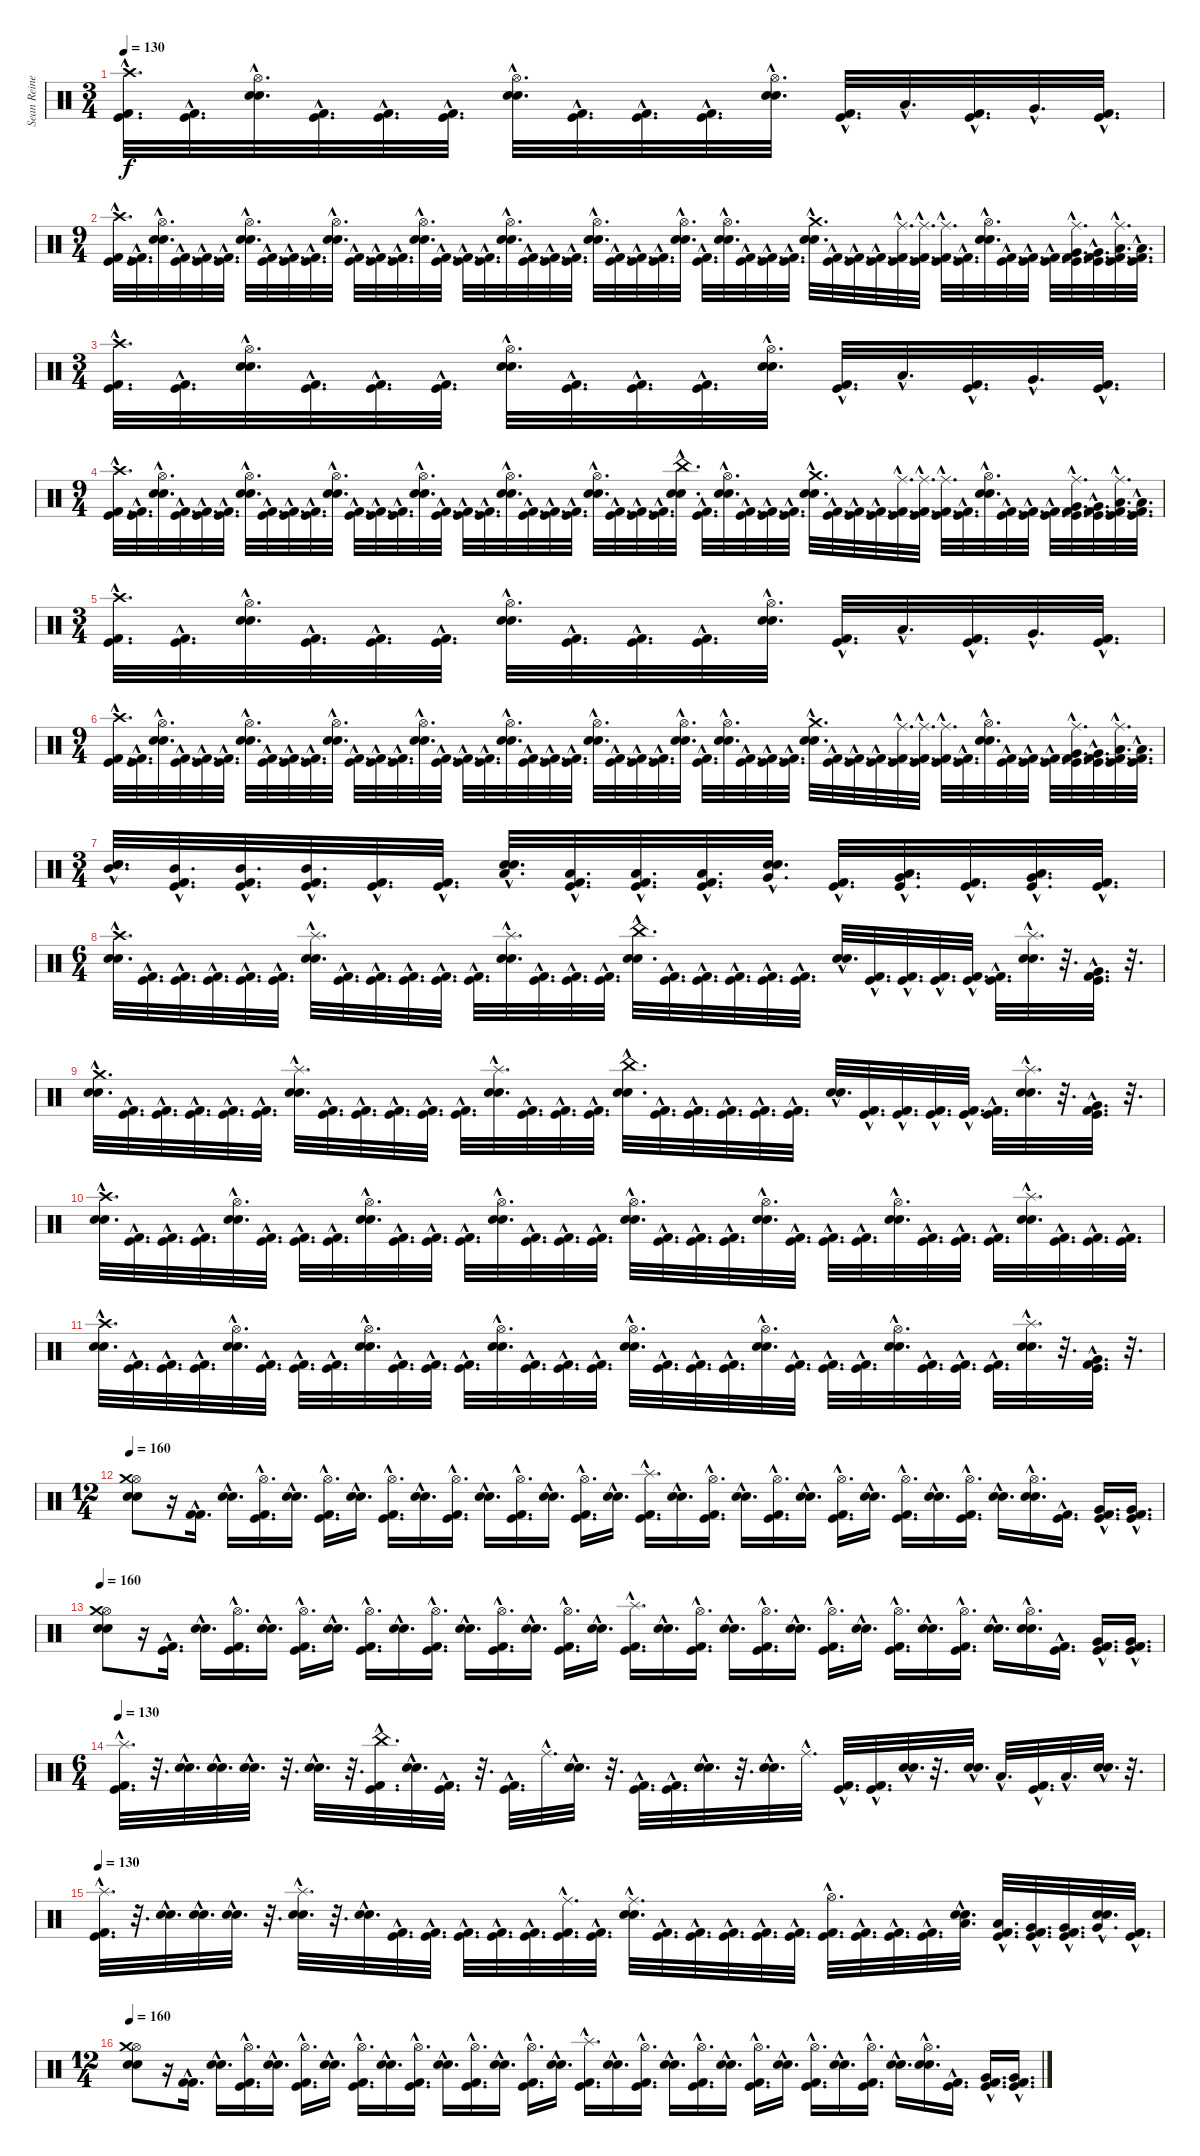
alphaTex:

\track ("Sean Reinert" "Sean Reine") {instrument percussion}
\staff {score}
\articulation defaults
\ts (3 4)
\tempo 130
\clef neutral
\ks c
("Crash high (hit)"{hac} "Kick (hit) 2"{hac} "Kick (hit)"{hac}).32{d dy f} ("Kick (hit) 2"{hac} "Kick (hit)"{hac}).32{d} ("Hi-Hat (open)"{hac} "Electric Snare (hit)"{hac} "Snare (hit) 2"{hac}).32{d} ("Kick (hit) 2"{hac} "Kick (hit)"{hac}).32{d} ("Kick (hit) 2"{hac} "Kick (hit)"{hac}).32{d} ("Kick (hit) 2"{hac} "Kick (hit)"{hac}).32{d} ("Hi-Hat (open)"{hac} "Electric Snare (hit)"{hac} "Snare (hit) 2"{hac}).32{d} ("Kick (hit) 2"{hac} "Kick (hit)"{hac}).32{d} ("Kick (hit) 2"{hac} "Kick (hit)"{hac}).32{d} ("Kick (hit) 2"{hac} "Kick (hit)"{hac}).32{d} ("Hi-Hat (open)"{hac} "Electric Snare (hit)"{hac} "Snare (hit) 2"{hac}).32{d} ("Kick (hit) 2"{hac} "Kick (hit)"{hac}).32{d} "Low Tom (hit)"{hac}.32{d} ("Kick (hit) 2"{hac} "Kick (hit)"{hac}).32{d} "Very Low Tom (hit)"{hac}.32{d} ("Kick (hit) 2"{hac} "Kick (hit)"{hac}).32{d} |
\ts (9 4)
("Crash high (hit)"{hac} "Kick (hit) 2"{hac} "Kick (hit)"{hac}).32{d} ("Kick (hit) 2"{hac} "Kick (hit)"{hac}).32{d} ("Hi-Hat (open)"{hac} "Electric Snare (hit)"{hac} "Snare (hit) 2"{hac}).32{d} ("Kick (hit) 2"{hac} "Kick (hit)"{hac}).32{d} ("Kick (hit) 2"{hac} "Kick (hit)"{hac}).32{d} ("Kick (hit) 2"{hac} "Kick (hit)"{hac}).32{d} ("Hi-Hat (open)"{hac} "Electric Snare (hit)"{hac} "Snare (hit) 2"{hac}).32{d} ("Kick (hit) 2"{hac} "Kick (hit)"{hac}).32{d} ("Kick (hit) 2"{hac} "Kick (hit)"{hac}).32{d} ("Kick (hit) 2"{hac} "Kick (hit)"{hac}).32{d} ("Hi-Hat (open)"{hac} "Electric Snare (hit)"{hac} "Snare (hit) 2"{hac}).32{d} ("Kick (hit) 2"{hac} "Kick (hit)"{hac}).32{d} ("Kick (hit) 2"{hac} "Kick (hit)"{hac}).32{d} ("Kick (hit) 2"{hac} "Kick (hit)"{hac}).32{d} ("Hi-Hat (open)"{hac} "Electric Snare (hit)"{hac} "Snare (hit) 2"{hac}).32{d} ("Kick (hit) 2"{hac} "Kick (hit)"{hac}).32{d} ("Kick (hit) 2"{hac} "Kick (hit)"{hac}).32{d} ("Kick (hit) 2"{hac} "Kick (hit)"{hac}).32{d} ("Hi-Hat (open)"{hac} "Electric Snare (hit)"{hac} "Snare (hit) 2"{hac}).32{d} ("Kick (hit) 2"{hac} "Kick (hit)"{hac}).32{d} ("Kick (hit) 2"{hac} "Kick (hit)"{hac}).32{d} ("Kick (hit) 2"{hac} "Kick (hit)"{hac}).32{d} ("Hi-Hat (open)"{hac} "Electric Snare (hit)"{hac} "Snare (hit) 2"{hac}).32{d} ("Kick (hit) 2"{hac} "Kick (hit)"{hac}).32{d} ("Kick (hit) 2"{hac} "Kick (hit)"{hac}).32{d} ("Kick (hit) 2"{hac} "Kick (hit)"{hac}).32{d} ("Hi-Hat (open)"{hac} "Electric Snare (hit)"{hac} "Snare (hit) 2"{hac}).32{d} ("Kick (hit) 2"{hac} "Kick (hit)"{hac}).32{d} ("Hi-Hat (open)"{hac} "Electric Snare (hit)"{hac} "Snare (hit) 2"{hac}).32{d} ("Kick (hit) 2"{hac} "Kick (hit)"{hac}).32{d} ("Kick (hit) 2"{hac} "Kick (hit)"{hac}).32{d} ("Kick (hit) 2"{hac} "Kick (hit)"{hac}).32{d} ("Crash medium (hit)"{hac} "Electric Snare (hit)"{hac} "Snare (hit) 2"{hac}).32{d} ("Kick (hit) 2"{hac} "Kick (hit)"{hac}).32{d} ("Kick (hit) 2"{hac} "Kick (hit)"{hac}).32{d} ("Kick (hit) 2"{hac} "Kick (hit)"{hac}).32{d} ("Ride (middle)"{hac} "Kick (hit) 2"{hac} "Kick (hit)"{hac}).32{d} ("Ride (middle)"{hac} "Kick (hit) 2"{hac} "Kick (hit)"{hac}).32{d} ("Ride (middle)"{hac} "Kick (hit) 2"{hac} "Kick (hit)"{hac}).32{d} ("Kick (hit) 2"{hac} "Kick (hit)"{hac}).32{d} ("Hi-Hat (open)"{hac} "Electric Snare (hit)"{hac} "Snare (hit) 2"{hac}).32{d} ("Kick (hit) 2"{hac} "Kick (hit)"{hac}).32{d} ("Kick (hit) 2"{hac} "Kick (hit)"{hac}).32{d} ("Kick (hit) 2"{hac} "Kick (hit)"{hac}).32{d} ("Ride (middle)"{hac} "Very Low Tom (hit)"{hac} "Kick (hit) 2"{hac} "Kick (hit)"{hac}).32{d} ("Very Low Tom (hit)"{hac} "Kick (hit) 2"{hac} "Kick (hit)"{hac}).32{d} ("Ride (middle)"{hac} "Low Floor Tom (hit)"{hac} "Kick (hit) 2"{hac} "Kick (hit)"{hac}).32{d} ("Low Floor Tom (hit)"{hac} "Kick (hit) 2"{hac} "Kick (hit)"{hac}).32{d} |
\ts (3 4)
("Crash high (hit)"{hac} "Kick (hit) 2"{hac} "Kick (hit)"{hac}).32{d} ("Kick (hit) 2"{hac} "Kick (hit)"{hac}).32{d} ("Hi-Hat (open)"{hac} "Electric Snare (hit)"{hac} "Snare (hit) 2"{hac}).32{d} ("Kick (hit) 2"{hac} "Kick (hit)"{hac}).32{d} ("Kick (hit) 2"{hac} "Kick (hit)"{hac}).32{d} ("Kick (hit) 2"{hac} "Kick (hit)"{hac}).32{d} ("Hi-Hat (open)"{hac} "Electric Snare (hit)"{hac} "Snare (hit) 2"{hac}).32{d} ("Kick (hit) 2"{hac} "Kick (hit)"{hac}).32{d} ("Kick (hit) 2"{hac} "Kick (hit)"{hac}).32{d} ("Kick (hit) 2"{hac} "Kick (hit)"{hac}).32{d} ("Hi-Hat (open)"{hac} "Electric Snare (hit)"{hac} "Snare (hit) 2"{hac}).32{d} ("Kick (hit) 2"{hac} "Kick (hit)"{hac}).32{d} "Low Tom (hit)"{hac}.32{d} ("Kick (hit) 2"{hac} "Kick (hit)"{hac}).32{d} "Very Low Tom (hit)"{hac}.32{d} ("Kick (hit) 2"{hac} "Kick (hit)"{hac}).32{d} |
\ts (9 4)
("Crash high (hit)"{hac} "Kick (hit) 2"{hac} "Kick (hit)"{hac}).32{d} ("Kick (hit) 2"{hac} "Kick (hit)"{hac}).32{d} ("Hi-Hat (open)"{hac} "Electric Snare (hit)"{hac} "Snare (hit) 2"{hac}).32{d} ("Kick (hit) 2"{hac} "Kick (hit)"{hac}).32{d} ("Kick (hit) 2"{hac} "Kick (hit)"{hac}).32{d} ("Kick (hit) 2"{hac} "Kick (hit)"{hac}).32{d} ("Hi-Hat (open)"{hac} "Electric Snare (hit)"{hac} "Snare (hit) 2"{hac}).32{d} ("Kick (hit) 2"{hac} "Kick (hit)"{hac}).32{d} ("Kick (hit) 2"{hac} "Kick (hit)"{hac}).32{d} ("Kick (hit) 2"{hac} "Kick (hit)"{hac}).32{d} ("Hi-Hat (open)"{hac} "Electric Snare (hit)"{hac} "Snare (hit) 2"{hac}).32{d} ("Kick (hit) 2"{hac} "Kick (hit)"{hac}).32{d} ("Kick (hit) 2"{hac} "Kick (hit)"{hac}).32{d} ("Kick (hit) 2"{hac} "Kick (hit)"{hac}).32{d} ("Hi-Hat (open)"{hac} "Electric Snare (hit)"{hac} "Snare (hit) 2"{hac}).32{d} ("Kick (hit) 2"{hac} "Kick (hit)"{hac}).32{d} ("Kick (hit) 2"{hac} "Kick (hit)"{hac}).32{d} ("Kick (hit) 2"{hac} "Kick (hit)"{hac}).32{d} ("Hi-Hat (open)"{hac} "Electric Snare (hit)"{hac} "Snare (hit) 2"{hac}).32{d} ("Kick (hit) 2"{hac} "Kick (hit)"{hac}).32{d} ("Kick (hit) 2"{hac} "Kick (hit)"{hac}).32{d} ("Kick (hit) 2"{hac} "Kick (hit)"{hac}).32{d} ("Hi-Hat (open)"{hac} "Electric Snare (hit)"{hac} "Snare (hit) 2"{hac}).32{d} ("Kick (hit) 2"{hac} "Kick (hit)"{hac}).32{d} ("Kick (hit) 2"{hac} "Kick (hit)"{hac}).32{d} ("Kick (hit) 2"{hac} "Kick (hit)"{hac}).32{d} ("China (hit)"{hac} "Electric Snare (hit)"{hac} "Snare (hit) 2"{hac}).32{d} ("Kick (hit) 2"{hac} "Kick (hit)"{hac}).32{d} ("Hi-Hat (open)"{hac} "Electric Snare (hit)"{hac} "Snare (hit) 2"{hac}).32{d} ("Kick (hit) 2"{hac} "Kick (hit)"{hac}).32{d} ("Kick (hit) 2"{hac} "Kick (hit)"{hac}).32{d} ("Kick (hit) 2"{hac} "Kick (hit)"{hac}).32{d} ("Crash medium (hit)"{hac} "Electric Snare (hit)"{hac} "Snare (hit) 2"{hac}).32{d} ("Kick (hit) 2"{hac} "Kick (hit)"{hac}).32{d} ("Kick (hit) 2"{hac} "Kick (hit)"{hac}).32{d} ("Kick (hit) 2"{hac} "Kick (hit)"{hac}).32{d} ("Ride (middle)"{hac} "Kick (hit) 2"{hac} "Kick (hit)"{hac}).32{d} ("Ride (middle)"{hac} "Kick (hit) 2"{hac} "Kick (hit)"{hac}).32{d} ("Ride (middle)"{hac} "Kick (hit) 2"{hac} "Kick (hit)"{hac}).32{d} ("Kick (hit) 2"{hac} "Kick (hit)"{hac}).32{d} ("Hi-Hat (open)"{hac} "Electric Snare (hit)"{hac} "Snare (hit) 2"{hac}).32{d} ("Kick (hit) 2"{hac} "Kick (hit)"{hac}).32{d} ("Kick (hit) 2"{hac} "Kick (hit)"{hac}).32{d} ("Kick (hit) 2"{hac} "Kick (hit)"{hac}).32{d} ("Ride (middle)"{hac} "Very Low Tom (hit)"{hac} "Kick (hit) 2"{hac} "Kick (hit)"{hac}).32{d} ("Very Low Tom (hit)"{hac} "Kick (hit) 2"{hac} "Kick (hit)"{hac}).32{d} ("Ride (middle)"{hac} "Low Floor Tom (hit)"{hac} "Kick (hit) 2"{hac} "Kick (hit)"{hac}).32{d} ("Low Floor Tom (hit)"{hac} "Kick (hit) 2"{hac} "Kick (hit)"{hac}).32{d} |
\ts (3 4)
("Crash high (hit)"{hac} "Kick (hit) 2"{hac} "Kick (hit)"{hac}).32{d} ("Kick (hit) 2"{hac} "Kick (hit)"{hac}).32{d} ("Hi-Hat (open)"{hac} "Electric Snare (hit)"{hac} "Snare (hit) 2"{hac}).32{d} ("Kick (hit) 2"{hac} "Kick (hit)"{hac}).32{d} ("Kick (hit) 2"{hac} "Kick (hit)"{hac}).32{d} ("Kick (hit) 2"{hac} "Kick (hit)"{hac}).32{d} ("Hi-Hat (open)"{hac} "Electric Snare (hit)"{hac} "Snare (hit) 2"{hac}).32{d} ("Kick (hit) 2"{hac} "Kick (hit)"{hac}).32{d} ("Kick (hit) 2"{hac} "Kick (hit)"{hac}).32{d} ("Kick (hit) 2"{hac} "Kick (hit)"{hac}).32{d} ("Hi-Hat (open)"{hac} "Electric Snare (hit)"{hac} "Snare (hit) 2"{hac}).32{d} ("Kick (hit) 2"{hac} "Kick (hit)"{hac}).32{d} "Low Tom (hit)"{hac}.32{d} ("Kick (hit) 2"{hac} "Kick (hit)"{hac}).32{d} "Very Low Tom (hit)"{hac}.32{d} ("Kick (hit) 2"{hac} "Kick (hit)"{hac}).32{d} |
\ts (9 4)
("Crash high (hit)"{hac} "Kick (hit) 2"{hac} "Kick (hit)"{hac}).32{d} ("Kick (hit) 2"{hac} "Kick (hit)"{hac}).32{d} ("Hi-Hat (open)"{hac} "Electric Snare (hit)"{hac} "Snare (hit) 2"{hac}).32{d} ("Kick (hit) 2"{hac} "Kick (hit)"{hac}).32{d} ("Kick (hit) 2"{hac} "Kick (hit)"{hac}).32{d} ("Kick (hit) 2"{hac} "Kick (hit)"{hac}).32{d} ("Hi-Hat (open)"{hac} "Electric Snare (hit)"{hac} "Snare (hit) 2"{hac}).32{d} ("Kick (hit) 2"{hac} "Kick (hit)"{hac}).32{d} ("Kick (hit) 2"{hac} "Kick (hit)"{hac}).32{d} ("Kick (hit) 2"{hac} "Kick (hit)"{hac}).32{d} ("Hi-Hat (open)"{hac} "Electric Snare (hit)"{hac} "Snare (hit) 2"{hac}).32{d} ("Kick (hit) 2"{hac} "Kick (hit)"{hac}).32{d} ("Kick (hit) 2"{hac} "Kick (hit)"{hac}).32{d} ("Kick (hit) 2"{hac} "Kick (hit)"{hac}).32{d} ("Hi-Hat (open)"{hac} "Electric Snare (hit)"{hac} "Snare (hit) 2"{hac}).32{d} ("Kick (hit) 2"{hac} "Kick (hit)"{hac}).32{d} ("Kick (hit) 2"{hac} "Kick (hit)"{hac}).32{d} ("Kick (hit) 2"{hac} "Kick (hit)"{hac}).32{d} ("Hi-Hat (open)"{hac} "Electric Snare (hit)"{hac} "Snare (hit) 2"{hac}).32{d} ("Kick (hit) 2"{hac} "Kick (hit)"{hac}).32{d} ("Kick (hit) 2"{hac} "Kick (hit)"{hac}).32{d} ("Kick (hit) 2"{hac} "Kick (hit)"{hac}).32{d} ("Hi-Hat (open)"{hac} "Electric Snare (hit)"{hac} "Snare (hit) 2"{hac}).32{d} ("Kick (hit) 2"{hac} "Kick (hit)"{hac}).32{d} ("Kick (hit) 2"{hac} "Kick (hit)"{hac}).32{d} ("Kick (hit) 2"{hac} "Kick (hit)"{hac}).32{d} ("Hi-Hat (open)"{hac} "Electric Snare (hit)"{hac} "Snare (hit) 2"{hac}).32{d} ("Kick (hit) 2"{hac} "Kick (hit)"{hac}).32{d} ("Hi-Hat (open)"{hac} "Electric Snare (hit)"{hac} "Snare (hit) 2"{hac}).32{d} ("Kick (hit) 2"{hac} "Kick (hit)"{hac}).32{d} ("Kick (hit) 2"{hac} "Kick (hit)"{hac}).32{d} ("Kick (hit) 2"{hac} "Kick (hit)"{hac}).32{d} ("Crash medium (hit)"{hac} "Electric Snare (hit)"{hac} "Snare (hit) 2"{hac}).32{d} ("Kick (hit) 2"{hac} "Kick (hit)"{hac}).32{d} ("Kick (hit) 2"{hac} "Kick (hit)"{hac}).32{d} ("Kick (hit) 2"{hac} "Kick (hit)"{hac}).32{d} ("Ride (middle)"{hac} "Kick (hit) 2"{hac} "Kick (hit)"{hac}).32{d} ("Ride (middle)"{hac} "Kick (hit) 2"{hac} "Kick (hit)"{hac}).32{d} ("Ride (middle)"{hac} "Kick (hit) 2"{hac} "Kick (hit)"{hac}).32{d} ("Kick (hit) 2"{hac} "Kick (hit)"{hac}).32{d} ("Hi-Hat (open)"{hac} "Electric Snare (hit)"{hac} "Snare (hit) 2"{hac}).32{d} ("Kick (hit) 2"{hac} "Kick (hit)"{hac}).32{d} ("Kick (hit) 2"{hac} "Kick (hit)"{hac}).32{d} ("Kick (hit) 2"{hac} "Kick (hit)"{hac}).32{d} ("Ride (middle)"{hac} "Very Low Tom (hit)"{hac} "Kick (hit) 2"{hac} "Kick (hit)"{hac}).32{d} ("Very Low Tom (hit)"{hac} "Kick (hit) 2"{hac} "Kick (hit)"{hac}).32{d} ("Ride (middle)"{hac} "Low Floor Tom (hit)"{hac} "Kick (hit) 2"{hac} "Kick (hit)"{hac}).32{d} ("Low Floor Tom (hit)"{hac} "Kick (hit) 2"{hac} "Kick (hit)"{hac}).32{d} |
\ts (3 4)
("Mid Tom (hit)"{hac} "Electric Snare (hit)"{hac} "Snare (hit) 2"{hac}).32{d} ("Mid Tom (hit)"{hac} "Kick (hit) 2"{hac} "Kick (hit)"{hac}).32{d} ("Mid Tom (hit)"{hac} "Kick (hit)"{hac} "Kick (hit) 2"{hac}).32{d} ("Mid Tom (hit)"{hac} "Kick (hit) 2"{hac} "Kick (hit)"{hac}).32{d} ("Kick (hit) 2"{hac} "Kick (hit)"{hac}).32{d} ("Kick (hit) 2"{hac} "Kick (hit)"{hac}).32{d} ("Low Tom (hit)"{hac} "Electric Snare (hit)"{hac} "Snare (hit) 2"{hac}).32{d} ("Low Tom (hit)"{hac} "Kick (hit) 2"{hac} "Kick (hit)"{hac}).32{d} ("Low Tom (hit)"{hac} "Kick (hit) 2"{hac} "Kick (hit)"{hac}).32{d} ("Low Tom (hit)"{hac} "Kick (hit) 2"{hac} "Kick (hit)"{hac}).32{d} ("Very Low Tom (hit)"{hac} "Electric Snare (hit)"{hac} "Snare (hit) 2"{hac}).32{d} ("Kick (hit) 2"{hac} "Kick (hit)"{hac}).32{d} ("Low Floor Tom (hit)"{hac} "Very Low Tom (hit)"{hac} "Kick (hit)"{hac}).32{d} ("Kick (hit) 2"{hac} "Kick (hit)"{hac}).32{d} ("Low Floor Tom (hit)"{hac} "Very Low Tom (hit)"{hac} "Kick (hit)"{hac}).32{d} ("Kick (hit) 2"{hac} "Kick (hit)"{hac}).32{d} |
\ts (6 4)
("Crash high (hit)"{hac} "Snare (hit) 2"{hac} "Electric Snare (hit)"{hac}).32{d} ("Kick (hit) 2"{hac} "Kick (hit)"{hac}).32{d} ("Kick (hit) 2"{hac} "Kick (hit)"{hac}).32{d} ("Kick (hit) 2"{hac} "Kick (hit)"{hac}).32{d} ("Kick (hit) 2"{hac} "Kick (hit)"{hac}).32{d} ("Kick (hit) 2"{hac} "Kick (hit)"{hac}).32{d} ("Splash (hit)"{hac} "Snare (hit) 2"{hac} "Electric Snare (hit)"{hac}).32{d} ("Kick (hit) 2"{hac} "Kick (hit)"{hac}).32{d} ("Kick (hit) 2"{hac} "Kick (hit)"{hac}).32{d} ("Kick (hit) 2"{hac} "Kick (hit)"{hac}).32{d} ("Kick (hit) 2"{hac} "Kick (hit)"{hac}).32{d} ("Kick (hit) 2"{hac} "Kick (hit)"{hac}).32{d} ("Splash (hit)"{hac} "Snare (hit) 2"{hac} "Electric Snare (hit)"{hac}).32{d} ("Kick (hit) 2"{hac} "Kick (hit)"{hac}).32{d} ("Kick (hit) 2"{hac} "Kick (hit)"{hac}).32{d} ("Kick (hit) 2"{hac} "Kick (hit)"{hac}).32{d} ("China (hit)"{hac} "Snare (hit) 2"{hac} "Electric Snare (hit)"{hac}).32{d} ("Kick (hit) 2"{hac} "Kick (hit)"{hac}).32{d} ("Kick (hit) 2"{hac} "Kick (hit)"{hac}).32{d} ("Kick (hit) 2"{hac} "Kick (hit)"{hac}).32{d} ("Kick (hit) 2"{hac} "Kick (hit)"{hac}).32{d} ("Kick (hit) 2"{hac} "Kick (hit)"{hac}).32{d} ("Snare (hit) 2"{hac} "Electric Snare (hit)"{hac}).32{d} ("Kick (hit) 2"{hac} "Kick (hit)"{hac}).32{d} ("Kick (hit) 2"{hac} "Kick (hit)"{hac}).32{d} ("Kick (hit) 2"{hac} "Kick (hit)"{hac}).32{d} ("Kick (hit) 2"{hac} "Kick (hit)"{hac}).32{d} ("Kick (hit) 2"{hac} "Kick (hit)"{hac}).32{d} ("Splash (hit)"{hac} "Snare (hit) 2"{hac} "Electric Snare (hit)"{hac}).32{d} r.32{d} ("Very Low Tom (hit)"{hac} "Kick (hit) 2"{hac} "Kick (hit)"{hac}).32{d} r.32{d} |
("Crash medium (hit)"{hac} "Snare (hit) 2"{hac} "Electric Snare (hit)"{hac}).32{d} ("Kick (hit) 2"{hac} "Kick (hit)"{hac}).32{d} ("Kick (hit) 2"{hac} "Kick (hit)"{hac}).32{d} ("Kick (hit) 2"{hac} "Kick (hit)"{hac}).32{d} ("Kick (hit) 2"{hac} "Kick (hit)"{hac}).32{d} ("Kick (hit) 2"{hac} "Kick (hit)"{hac}).32{d} ("Splash (hit)"{hac} "Snare (hit) 2"{hac} "Electric Snare (hit)"{hac}).32{d} ("Kick (hit) 2"{hac} "Kick (hit)"{hac}).32{d} ("Kick (hit) 2"{hac} "Kick (hit)"{hac}).32{d} ("Kick (hit) 2"{hac} "Kick (hit)"{hac}).32{d} ("Kick (hit) 2"{hac} "Kick (hit)"{hac}).32{d} ("Kick (hit) 2"{hac} "Kick (hit)"{hac}).32{d} ("Splash (hit)"{hac} "Snare (hit) 2"{hac} "Electric Snare (hit)"{hac}).32{d} ("Kick (hit) 2"{hac} "Kick (hit)"{hac}).32{d} ("Kick (hit) 2"{hac} "Kick (hit)"{hac}).32{d} ("Kick (hit) 2"{hac} "Kick (hit)"{hac}).32{d} ("China (hit)"{hac} "Snare (hit) 2"{hac} "Electric Snare (hit)"{hac}).32{d} ("Kick (hit) 2"{hac} "Kick (hit)"{hac}).32{d} ("Kick (hit) 2"{hac} "Kick (hit)"{hac}).32{d} ("Kick (hit) 2"{hac} "Kick (hit)"{hac}).32{d} ("Kick (hit) 2"{hac} "Kick (hit)"{hac}).32{d} ("Kick (hit) 2"{hac} "Kick (hit)"{hac}).32{d} ("Snare (hit) 2"{hac} "Electric Snare (hit)"{hac}).32{d} ("Kick (hit) 2"{hac} "Kick (hit)"{hac}).32{d} ("Kick (hit) 2"{hac} "Kick (hit)"{hac}).32{d} ("Kick (hit) 2"{hac} "Kick (hit)"{hac}).32{d} ("Kick (hit) 2"{hac} "Kick (hit)"{hac}).32{d} ("Kick (hit) 2"{hac} "Kick (hit)"{hac}).32{d} ("Splash (hit)"{hac} "Snare (hit) 2"{hac} "Electric Snare (hit)"{hac}).32{d} r.32{d} ("Very Low Tom (hit)"{hac} "Kick (hit) 2"{hac} "Kick (hit)"{hac}).32{d} r.32{d} |
("Crash high (hit)"{hac} "Snare (hit) 2"{hac} "Electric Snare (hit)"{hac}).32{d} ("Kick (hit) 2"{hac} "Kick (hit)"{hac}).32{d} ("Kick (hit) 2"{hac} "Kick (hit)"{hac}).32{d} ("Kick (hit) 2"{hac} "Kick (hit)"{hac}).32{d} ("Hi-Hat (open)"{hac} "Snare (hit) 2"{hac} "Electric Snare (hit)"{hac}).32{d} ("Kick (hit) 2"{hac} "Kick (hit)"{hac}).32{d} ("Kick (hit) 2"{hac} "Kick (hit)"{hac}).32{d} ("Kick (hit) 2"{hac} "Kick (hit)"{hac}).32{d} ("Hi-Hat (open)"{hac} "Snare (hit) 2"{hac} "Electric Snare (hit)"{hac}).32{d} ("Kick (hit) 2"{hac} "Kick (hit)"{hac}).32{d} ("Kick (hit) 2"{hac} "Kick (hit)"{hac}).32{d} ("Kick (hit) 2"{hac} "Kick (hit)"{hac}).32{d} ("Hi-Hat (open)"{hac} "Snare (hit) 2"{hac} "Electric Snare (hit)"{hac}).32{d} ("Kick (hit) 2"{hac} "Kick (hit)"{hac}).32{d} ("Kick (hit) 2"{hac} "Kick (hit)"{hac}).32{d} ("Kick (hit) 2"{hac} "Kick (hit)"{hac}).32{d} ("Hi-Hat (open)"{hac} "Snare (hit) 2"{hac} "Electric Snare (hit)"{hac}).32{d} ("Kick (hit) 2"{hac} "Kick (hit)"{hac}).32{d} ("Kick (hit) 2"{hac} "Kick (hit)"{hac}).32{d} ("Kick (hit) 2"{hac} "Kick (hit)"{hac}).32{d} ("Hi-Hat (open)"{hac} "Snare (hit) 2"{hac} "Electric Snare (hit)"{hac}).32{d} ("Kick (hit) 2"{hac} "Kick (hit)"{hac}).32{d} ("Kick (hit) 2"{hac} "Kick (hit)"{hac}).32{d} ("Kick (hit) 2"{hac} "Kick (hit)"{hac}).32{d} ("Hi-Hat (open)"{hac} "Snare (hit) 2"{hac} "Electric Snare (hit)"{hac}).32{d} ("Kick (hit) 2"{hac} "Kick (hit)"{hac}).32{d} ("Kick (hit) 2"{hac} "Kick (hit)"{hac}).32{d} ("Kick (hit) 2"{hac} "Kick (hit)"{hac}).32{d} ("Splash (hit)"{hac} "Snare (hit) 2"{hac} "Electric Snare (hit)"{hac}).32{d} ("Kick (hit) 2"{hac} "Kick (hit)"{hac}).32{d} ("Kick (hit) 2"{hac} "Kick (hit)"{hac}).32{d} ("Kick (hit) 2"{hac} "Kick (hit)"{hac}).32{d} |
("Crash high (hit)"{hac} "Snare (hit) 2"{hac} "Electric Snare (hit)"{hac}).32{d} ("Kick (hit) 2"{hac} "Kick (hit)"{hac}).32{d} ("Kick (hit) 2"{hac} "Kick (hit)"{hac}).32{d} ("Kick (hit) 2"{hac} "Kick (hit)"{hac}).32{d} ("Hi-Hat (open)"{hac} "Snare (hit) 2"{hac} "Electric Snare (hit)"{hac}).32{d} ("Kick (hit) 2"{hac} "Kick (hit)"{hac}).32{d} ("Kick (hit) 2"{hac} "Kick (hit)"{hac}).32{d} ("Kick (hit) 2"{hac} "Kick (hit)"{hac}).32{d} ("Hi-Hat (open)"{hac} "Snare (hit) 2"{hac} "Electric Snare (hit)"{hac}).32{d} ("Kick (hit) 2"{hac} "Kick (hit)"{hac}).32{d} ("Kick (hit) 2"{hac} "Kick (hit)"{hac}).32{d} ("Kick (hit) 2"{hac} "Kick (hit)"{hac}).32{d} ("Hi-Hat (open)"{hac} "Snare (hit) 2"{hac} "Electric Snare (hit)"{hac}).32{d} ("Kick (hit) 2"{hac} "Kick (hit)"{hac}).32{d} ("Kick (hit) 2"{hac} "Kick (hit)"{hac}).32{d} ("Kick (hit) 2"{hac} "Kick (hit)"{hac}).32{d} ("Hi-Hat (open)"{hac} "Snare (hit) 2"{hac} "Electric Snare (hit)"{hac}).32{d} ("Kick (hit) 2"{hac} "Kick (hit)"{hac}).32{d} ("Kick (hit) 2"{hac} "Kick (hit)"{hac}).32{d} ("Kick (hit) 2"{hac} "Kick (hit)"{hac}).32{d} ("Hi-Hat (open)"{hac} "Snare (hit) 2"{hac} "Electric Snare (hit)"{hac}).32{d} ("Kick (hit) 2"{hac} "Kick (hit)"{hac}).32{d} ("Kick (hit) 2"{hac} "Kick (hit)"{hac}).32{d} ("Kick (hit) 2"{hac} "Kick (hit)"{hac}).32{d} ("Hi-Hat (open)"{hac} "Snare (hit) 2"{hac} "Electric Snare (hit)"{hac}).32{d} ("Kick (hit) 2"{hac} "Kick (hit)"{hac}).32{d} ("Kick (hit) 2"{hac} "Kick (hit)"{hac}).32{d} ("Kick (hit) 2"{hac} "Kick (hit)"{hac}).32{d} ("Splash (hit)"{hac} "Snare (hit) 2"{hac} "Electric Snare (hit)"{hac}).32{d} r.32{d} ("Very Low Tom (hit)"{hac} "Kick (hit) 2"{hac} "Kick (hit)"{hac}).32{d} r.32{d} |
\ts (12 4)
\tempo 160
("Hi-Hat (open)" "Crash medium (hit)" "Snare (hit) 2" "Electric Snare (hit)").8 r.16 ("Kick (hit) 2"{hac} "Kick (hit) 2"{hac}).16{d} ("Snare (hit) 2"{hac} "Electric Snare (hit)"{hac}).16{d} ("Hi-Hat (open)"{hac} "Kick (hit) 2"{hac} "Kick (hit)"{hac}).16{d} ("Snare (hit) 2"{hac} "Electric Snare (hit)"{hac}).16{d} ("Hi-Hat (open)"{hac} "Kick (hit) 2"{hac} "Kick (hit)"{hac}).16{d} ("Snare (hit) 2"{hac} "Electric Snare (hit)"{hac}).16{d} ("Hi-Hat (open)"{hac} "Kick (hit) 2"{hac} "Kick (hit)"{hac}).16{d} ("Snare (hit) 2"{hac} "Electric Snare (hit)"{hac}).16{d} ("Hi-Hat (open)"{hac} "Kick (hit) 2"{hac} "Kick (hit)"{hac}).16{d} ("Snare (hit) 2"{hac} "Electric Snare (hit)"{hac}).16{d} ("Hi-Hat (open)"{hac} "Kick (hit) 2"{hac} "Kick (hit)"{hac}).16{d} ("Snare (hit) 2"{hac} "Electric Snare (hit)"{hac}).16{d} ("Hi-Hat (open)"{hac} "Kick (hit) 2"{hac} "Kick (hit)"{hac}).16{d} ("Snare (hit) 2"{hac} "Electric Snare (hit)"{hac}).16{d} ("Splash (hit)"{hac} "Kick (hit) 2"{hac} "Kick (hit)"{hac}).16{d} ("Snare (hit) 2"{hac} "Electric Snare (hit)"{hac}).16{d} ("Hi-Hat (open)"{hac} "Kick (hit) 2"{hac} "Kick (hit)"{hac}).16{d} ("Snare (hit) 2"{hac} "Electric Snare (hit)"{hac}).16{d} ("Hi-Hat (open)"{hac} "Kick (hit) 2"{hac} "Kick (hit)"{hac}).16{d} ("Snare (hit) 2"{hac} "Electric Snare (hit)"{hac}).16{d} ("Hi-Hat (open)"{hac} "Kick (hit) 2"{hac} "Kick (hit)"{hac}).16{d} ("Snare (hit) 2"{hac} "Electric Snare (hit)"{hac}).16{d} ("Hi-Hat (open)"{hac} "Kick (hit) 2"{hac} "Kick (hit)"{hac}).16{d} ("Snare (hit) 2"{hac} "Electric Snare (hit)"{hac}).16{d} ("Hi-Hat (open)"{hac} "Kick (hit) 2"{hac} "Kick (hit)"{hac}).16{d} ("Snare (hit) 2"{hac} "Electric Snare (hit)"{hac}).16{d} ("Hi-Hat (open)"{hac} "Snare (hit) 2"{hac} "Electric Snare (hit)"{hac}).16{d} ("Kick (hit) 2"{hac} "Kick (hit)"{hac}).16{d} ("Very Low Tom (hit)"{hac} "Kick (hit) 2"{hac} "Kick (hit)"{hac}).16{d} ("Very Low Tom (hit)"{hac} "Kick (hit) 2"{hac} "Kick (hit)"{hac}).16{d} |
\tempo 160
("Hi-Hat (open)" "Crash medium (hit)" "Snare (hit) 2" "Electric Snare (hit)").8 r.16 ("Kick (hit) 2"{hac} "Kick (hit)"{hac}).16{d} ("Snare (hit) 2"{hac} "Electric Snare (hit)"{hac}).16{d} ("Hi-Hat (open)"{hac} "Kick (hit) 2"{hac} "Kick (hit)"{hac}).16{d} ("Snare (hit) 2"{hac} "Electric Snare (hit)"{hac}).16{d} ("Hi-Hat (open)"{hac} "Kick (hit) 2"{hac} "Kick (hit)"{hac}).16{d} ("Snare (hit) 2"{hac} "Electric Snare (hit)"{hac}).16{d} ("Hi-Hat (open)"{hac} "Kick (hit) 2"{hac} "Kick (hit)"{hac}).16{d} ("Snare (hit) 2"{hac} "Electric Snare (hit)"{hac}).16{d} ("Hi-Hat (open)"{hac} "Kick (hit) 2"{hac} "Kick (hit)"{hac}).16{d} ("Snare (hit) 2"{hac} "Electric Snare (hit)"{hac}).16{d} ("Hi-Hat (open)"{hac} "Kick (hit) 2"{hac} "Kick (hit)"{hac}).16{d} ("Snare (hit) 2"{hac} "Electric Snare (hit)"{hac}).16{d} ("Hi-Hat (open)"{hac} "Kick (hit) 2"{hac} "Kick (hit)"{hac}).16{d} ("Snare (hit) 2"{hac} "Electric Snare (hit)"{hac}).16{d} ("Splash (hit)"{hac} "Kick (hit) 2"{hac} "Kick (hit)"{hac}).16{d} ("Snare (hit) 2"{hac} "Electric Snare (hit)"{hac}).16{d} ("Hi-Hat (open)"{hac} "Kick (hit) 2"{hac} "Kick (hit)"{hac}).16{d} ("Snare (hit) 2"{hac} "Electric Snare (hit)"{hac}).16{d} ("Hi-Hat (open)"{hac} "Kick (hit) 2"{hac} "Kick (hit)"{hac}).16{d} ("Snare (hit) 2"{hac} "Electric Snare (hit)"{hac}).16{d} ("Hi-Hat (open)"{hac} "Kick (hit) 2"{hac} "Kick (hit)"{hac}).16{d} ("Snare (hit) 2"{hac} "Electric Snare (hit)"{hac}).16{d} ("Hi-Hat (open)"{hac} "Kick (hit) 2"{hac} "Kick (hit)"{hac}).16{d} ("Snare (hit) 2"{hac} "Electric Snare (hit)"{hac}).16{d} ("Hi-Hat (open)"{hac} "Kick (hit) 2"{hac} "Kick (hit)"{hac}).16{d} ("Snare (hit) 2"{hac} "Electric Snare (hit)"{hac}).16{d} ("Hi-Hat (open)"{hac} "Snare (hit) 2"{hac} "Electric Snare (hit)"{hac}).16{d} ("Kick (hit) 2"{hac} "Kick (hit)"{hac}).16{d} ("Very Low Tom (hit)"{hac} "Kick (hit) 2"{hac} "Kick (hit)"{hac}).16{d} ("Very Low Tom (hit)"{hac} "Kick (hit) 2"{hac} "Kick (hit)"{hac}).16{d} |
\ts (6 4)
\tempo 130
("Splash (hit)"{hac} "Kick (hit) 2"{hac} "Kick (hit)"{hac}).32{d} r.32{d} ("Snare (hit) 2"{hac} "Electric Snare (hit)"{hac}).32{d} ("Snare (hit) 2"{hac} "Electric Snare (hit)"{hac}).32{d} ("Snare (hit) 2"{hac} "Electric Snare (hit)"{hac}).32{d} r.32{d} ("Snare (hit) 2"{hac} "Electric Snare (hit)"{hac}).32{d} r.32{d} ("China (hit)"{hac} "Kick (hit) 2"{hac} "Kick (hit)"{hac}).32{d} ("Snare (hit) 2"{hac} "Electric Snare (hit)"{hac}).32{d} ("Kick (hit) 2"{hac} "Kick (hit)"{hac}).32{d} r.32{d} ("Kick (hit) 2"{hac} "Kick (hit)"{hac}).32{d} "Ride (middle)"{hac}.32{d} ("Snare (hit) 2"{hac} "Electric Snare (hit)"{hac}).32{d} r.32{d} ("Kick (hit) 2"{hac} "Kick (hit)"{hac}).32{d} ("Kick (hit) 2"{hac} "Kick (hit)"{hac}).32{d} ("Snare (hit) 2"{hac} "Electric Snare (hit)"{hac}).32{d} r.32{d} ("Snare (hit) 2"{hac} "Electric Snare (hit)"{hac}).32{d} "Ride (middle)"{hac}.32{d} ("Kick (hit) 2"{hac} "Kick (hit)"{hac}).32{d} ("Kick (hit) 2"{hac} "Kick (hit)"{hac}).32{d} ("Snare (hit) 2"{hac} "Electric Snare (hit)"{hac}).32{d} r.32{d} ("Snare (hit) 2"{hac} "Electric Snare (hit)"{hac}).32{d} "Low Tom (hit)"{hac}.32{d} ("Kick (hit) 2"{hac} "Kick (hit)"{hac}).32{d} "Low Tom (hit)"{hac}.32{d} ("Snare (hit) 2"{hac} "Electric Snare (hit)"{hac}).32{d} r.32{d} |
\tempo 130
("Splash (hit)"{hac} "Kick (hit) 2"{hac} "Kick (hit)"{hac}).32{d} r.32{d} ("Snare (hit) 2"{hac} "Electric Snare (hit)"{hac}).32{d} ("Snare (hit) 2"{hac} "Electric Snare (hit)"{hac}).32{d} ("Snare (hit) 2"{hac} "Electric Snare (hit)"{hac}).32{d} r.32{d} ("Splash (hit)"{hac} "Snare (hit) 2"{hac} "Electric Snare (hit)"{hac}).32{d} r.32{d} ("Electric Snare (hit)"{hac} "Snare (hit) 2"{hac}).32{d} ("Kick (hit) 2"{hac} "Kick (hit)"{hac}).32{d} ("Kick (hit) 2"{hac} "Kick (hit)"{hac}).32{d} ("Kick (hit) 2"{hac} "Kick (hit)"{hac}).32{d} ("Kick (hit) 2"{hac} "Kick (hit)"{hac}).32{d} ("Kick (hit) 2"{hac} "Kick (hit)"{hac}).32{d} ("Ride (middle)"{hac} "Kick (hit) 2"{hac} "Kick (hit)"{hac}).32{d} ("Kick (hit) 2"{hac} "Kick (hit)"{hac}).32{d} ("Ride (middle)"{hac} "Electric Snare (hit)"{hac} "Snare (hit) 2"{hac}).32{d} ("Kick (hit) 2"{hac} "Kick (hit)"{hac}).32{d} ("Kick (hit) 2"{hac} "Kick (hit)"{hac}).32{d} ("Kick (hit) 2"{hac} "Kick (hit)"{hac}).32{d} ("Kick (hit) 2"{hac} "Kick (hit)"{hac}).32{d} ("Kick (hit) 2"{hac} "Kick (hit)"{hac}).32{d} ("Hi-Hat (open)"{hac} "Kick (hit) 2"{hac} "Kick (hit)"{hac}).32{d} ("Kick (hit) 2"{hac} "Kick (hit)"{hac}).32{d} ("Kick (hit) 2"{hac} "Kick (hit)"{hac}).32{d} ("Kick (hit) 2"{hac} "Kick (hit)"{hac}).32{d} ("Low Tom (hit)"{hac} "Snare (hit) 2"{hac} "Electric Snare (hit)"{hac}).32{d} ("Low Tom (hit)"{hac} "Kick (hit) 2"{hac} "Kick (hit)"{hac}).32{d} ("Very Low Tom (hit)"{hac} "Kick (hit) 2"{hac} "Kick (hit)"{hac}).32{d} ("Very Low Tom (hit)"{hac} "Kick (hit) 2"{hac} "Kick (hit)"{hac}).32{d} ("Very Low Tom (hit)"{hac} "Snare (hit) 2"{hac} "Electric Snare (hit)"{hac}).32{d} ("Kick (hit) 2"{hac} "Kick (hit)"{hac}).32{d} |
\ts (12 4)
\tempo 160
("Hi-Hat (open)" "Crash medium (hit)" "Snare (hit) 2" "Electric Snare (hit)").8 r.16 ("Kick (hit) 2"{hac} "Kick (hit) 2"{hac}).16{d} ("Snare (hit) 2"{hac} "Electric Snare (hit)"{hac}).16{d} ("Hi-Hat (open)"{hac} "Kick (hit) 2"{hac} "Kick (hit)"{hac}).16{d} ("Snare (hit) 2"{hac} "Electric Snare (hit)"{hac}).16{d} ("Hi-Hat (open)"{hac} "Kick (hit) 2"{hac} "Kick (hit)"{hac}).16{d} ("Snare (hit) 2"{hac} "Electric Snare (hit)"{hac}).16{d} ("Hi-Hat (open)"{hac} "Kick (hit) 2"{hac} "Kick (hit)"{hac}).16{d} ("Snare (hit) 2"{hac} "Electric Snare (hit)"{hac}).16{d} ("Hi-Hat (open)"{hac} "Kick (hit) 2"{hac} "Kick (hit)"{hac}).16{d} ("Snare (hit) 2"{hac} "Electric Snare (hit)"{hac}).16{d} ("Hi-Hat (open)"{hac} "Kick (hit) 2"{hac} "Kick (hit)"{hac}).16{d} ("Snare (hit) 2"{hac} "Electric Snare (hit)"{hac}).16{d} ("Hi-Hat (open)"{hac} "Kick (hit) 2"{hac} "Kick (hit)"{hac}).16{d} ("Snare (hit) 2"{hac} "Electric Snare (hit)"{hac}).16{d} ("Splash (hit)"{hac} "Kick (hit) 2"{hac} "Kick (hit)"{hac}).16{d} ("Snare (hit) 2"{hac} "Electric Snare (hit)"{hac}).16{d} ("Hi-Hat (open)"{hac} "Kick (hit) 2"{hac} "Kick (hit)"{hac}).16{d} ("Snare (hit) 2"{hac} "Electric Snare (hit)"{hac}).16{d} ("Hi-Hat (open)"{hac} "Kick (hit) 2"{hac} "Kick (hit)"{hac}).16{d} ("Snare (hit) 2"{hac} "Electric Snare (hit)"{hac}).16{d} ("Hi-Hat (open)"{hac} "Kick (hit) 2"{hac} "Kick (hit)"{hac}).16{d} ("Snare (hit) 2"{hac} "Electric Snare (hit)"{hac}).16{d} ("Hi-Hat (open)"{hac} "Kick (hit) 2"{hac} "Kick (hit)"{hac}).16{d} ("Snare (hit) 2"{hac} "Electric Snare (hit)"{hac}).16{d} ("Hi-Hat (open)"{hac} "Kick (hit) 2"{hac} "Kick (hit)"{hac}).16{d} ("Snare (hit) 2"{hac} "Electric Snare (hit)"{hac}).16{d} ("Hi-Hat (open)"{hac} "Snare (hit) 2"{hac} "Electric Snare (hit)"{hac}).16{d} ("Kick (hit) 2"{hac} "Kick (hit)"{hac}).16{d} ("Very Low Tom (hit)"{hac} "Kick (hit) 2"{hac} "Kick (hit)"{hac}).16{d} ("Very Low Tom (hit)"{hac} "Kick (hit) 2"{hac} "Kick (hit)"{hac}).16{d}
